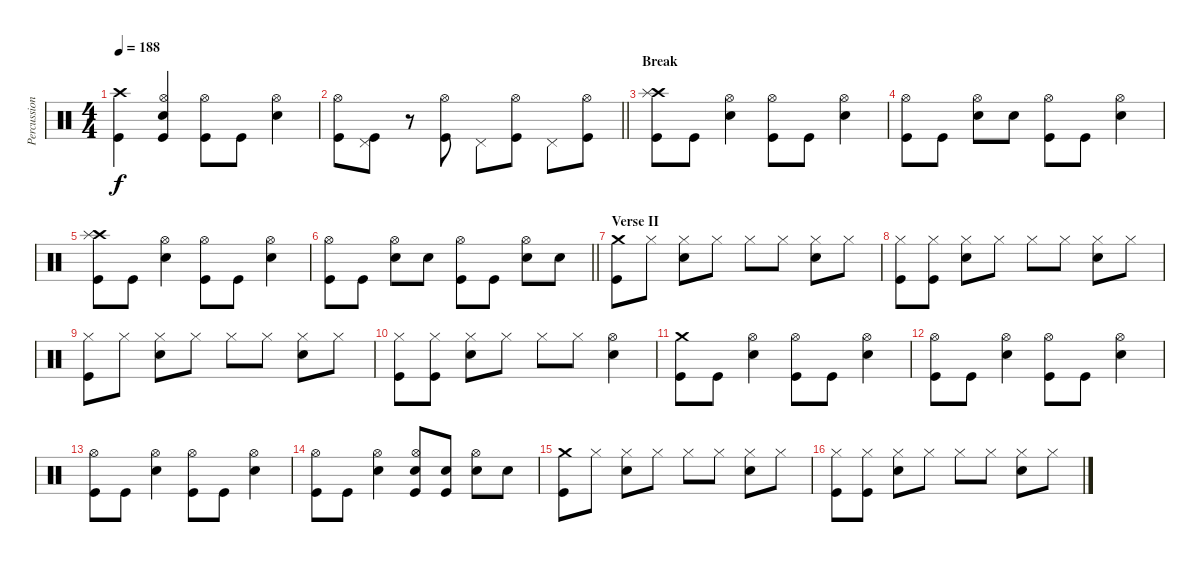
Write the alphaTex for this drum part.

\track ("Percussion" "Percussion") {instrument percussion}
\staff {score}
\articulation defaults
\ts (4 4)
\tempo 188
\clef neutral
\ks c
("Crash high (hit)" "Kick (hit)").4{dy f} ("Hi-Hat (open)" "Electric Snare (hit)" "Kick (hit)").4 ("Hi-Hat (open)" "Kick (hit)").8 "Kick (hit)".8 ("Hi-Hat (open)" "Electric Snare (hit)").4 |
\barLineRight lightlight
("Hi-Hat (open)" "Kick (hit)").8 ("Pedal Hi-Hat (hit)" "Kick (hit)").8 r.8 ("Hi-Hat (open)" "Kick (hit)").8 "Pedal Hi-Hat (hit)".8 ("Hi-Hat (open)" "Kick (hit)").8 "Pedal Hi-Hat (hit)".8 ("Hi-Hat (open)" "Kick (hit)").8 |
\section ("" "Break")
("Crash high (hit)" "Splash (hit)" "Kick (hit)").8 "Kick (hit)".8 ("Hi-Hat (open)" "Electric Snare (hit)").4 ("Hi-Hat (open)" "Kick (hit)").8 "Kick (hit)".8 ("Hi-Hat (open)" "Electric Snare (hit)").4 |
("Hi-Hat (open)" "Kick (hit)").8 "Kick (hit)".8 ("Hi-Hat (open)" "Electric Snare (hit)").8 "Electric Snare (hit)".8 ("Hi-Hat (open)" "Kick (hit)").8 "Kick (hit)".8 ("Hi-Hat (open)" "Electric Snare (hit)").4 |
("Crash high (hit)" "Splash (hit)" "Kick (hit)").8 "Kick (hit)".8 ("Hi-Hat (open)" "Electric Snare (hit)").4 ("Hi-Hat (open)" "Kick (hit)").8 "Kick (hit)".8 ("Hi-Hat (open)" "Electric Snare (hit)").4 |
\barLineRight lightlight
("Hi-Hat (open)" "Kick (hit)").8 "Kick (hit)".8 ("Hi-Hat (open)" "Electric Snare (hit)").8 "Electric Snare (hit)".8 ("Hi-Hat (open)" "Kick (hit)").8 "Kick (hit)".8 ("Hi-Hat (open)" "Electric Snare (hit)").8 "Electric Snare (hit)".8 |
\section ("" "Verse II")
("Crash medium (hit)" "Kick (hit)").8 "Hi-Hat (closed)".8 ("Hi-Hat (closed)" "Electric Snare (hit)").8 "Hi-Hat (closed)".8 "Hi-Hat (closed)".8 "Hi-Hat (closed)".8 ("Hi-Hat (closed)" "Electric Snare (hit)").8 "Hi-Hat (closed)".8 |
("Hi-Hat (closed)" "Kick (hit)").8 ("Hi-Hat (closed)" "Kick (hit)").8 ("Hi-Hat (closed)" "Electric Snare (hit)").8 "Hi-Hat (closed)".8 "Hi-Hat (closed)".8 "Hi-Hat (closed)".8 ("Hi-Hat (closed)" "Electric Snare (hit)").8 "Hi-Hat (closed)".8 |
("Hi-Hat (closed)" "Kick (hit)").8 "Hi-Hat (closed)".8 ("Hi-Hat (closed)" "Electric Snare (hit)").8 "Hi-Hat (closed)".8 "Hi-Hat (closed)".8 "Hi-Hat (closed)".8 ("Hi-Hat (closed)" "Electric Snare (hit)").8 "Hi-Hat (closed)".8 |
("Hi-Hat (closed)" "Kick (hit)").8 ("Hi-Hat (closed)" "Kick (hit)").8 ("Hi-Hat (closed)" "Electric Snare (hit)").8 "Hi-Hat (closed)".8 "Hi-Hat (closed)".8 "Hi-Hat (closed)".8 ("Hi-Hat (open)" "Electric Snare (hit)").4 |
("Crash medium (hit)" "Kick (hit)").8 "Kick (hit)".8 ("Hi-Hat (open)" "Electric Snare (hit)").4 ("Hi-Hat (open)" "Kick (hit)").8 "Kick (hit)".8 ("Hi-Hat (open)" "Electric Snare (hit)").4 |
("Hi-Hat (open)" "Kick (hit)").8 "Kick (hit)".8 ("Hi-Hat (open)" "Electric Snare (hit)").4 ("Hi-Hat (open)" "Kick (hit)").8 "Kick (hit)".8 ("Hi-Hat (open)" "Electric Snare (hit)").4 |
("Hi-Hat (open)" "Kick (hit)").8 "Kick (hit)".8 ("Hi-Hat (open)" "Electric Snare (hit)").4 ("Hi-Hat (open)" "Kick (hit)").8 "Kick (hit)".8 ("Hi-Hat (open)" "Electric Snare (hit)").4 |
("Hi-Hat (open)" "Kick (hit)").8 "Kick (hit)".8 ("Hi-Hat (open)" "Electric Snare (hit)").4 ("Hi-Hat (open)" "Electric Snare (hit)" "Kick (hit)").8 ("Electric Snare (hit)" "Kick (hit)").8 ("Hi-Hat (open)" "Electric Snare (hit)").8 "Electric Snare (hit)".8 |
("Crash medium (hit)" "Kick (hit)").8 "Hi-Hat (closed)".8 ("Hi-Hat (closed)" "Electric Snare (hit)").8 "Hi-Hat (closed)".8 "Hi-Hat (closed)".8 "Hi-Hat (closed)".8 ("Hi-Hat (closed)" "Electric Snare (hit)").8 "Hi-Hat (closed)".8 |
("Hi-Hat (closed)" "Kick (hit)").8 ("Hi-Hat (closed)" "Kick (hit)").8 ("Hi-Hat (closed)" "Electric Snare (hit)").8 "Hi-Hat (closed)".8 "Hi-Hat (closed)".8 "Hi-Hat (closed)".8 ("Hi-Hat (closed)" "Electric Snare (hit)").8 "Hi-Hat (closed)".8
